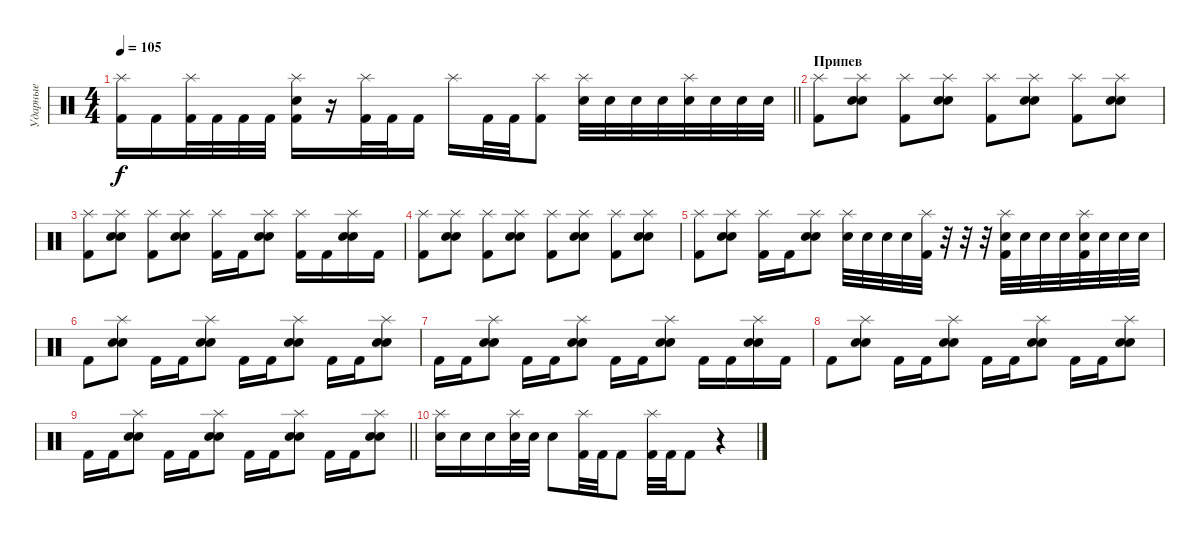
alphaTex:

\track ("Ударные" "Ударные") {instrument percussion}
\staff {score}
\articulation defaults
\ts (4 4)
\tempo 105
\clef neutral
\barLineRight lightlight
\ks c
("Splash (hit)" "Kick (hit) 2").16{dy f} "Kick (hit) 2".16 ("Splash (hit)" "Kick (hit) 2").32 "Kick (hit) 2".32 "Kick (hit) 2".32 "Kick (hit) 2".32 ("Splash (hit)" "Electric Snare (hit)" "Kick (hit) 2").16 r.16 ("Splash (hit)" "Kick (hit) 2").32 "Kick (hit) 2".32 "Kick (hit) 2".16 "Splash (hit)".16 "Kick (hit) 2".32 "Kick (hit) 2".32 ("Splash (hit)" "Kick (hit) 2").8 ("Splash (hit)" "Electric Snare (hit)").32 "Electric Snare (hit)".32 "Electric Snare (hit)".32 "Electric Snare (hit)".32 ("Splash (hit)" "Electric Snare (hit)").32 "Electric Snare (hit)".32 "Electric Snare (hit)".32 "Electric Snare (hit)".32 |
\section ("" "Припев")
("Splash (hit)" "Kick (hit) 2").8 ("Splash (hit)" "Electric Snare (hit)" "Snare (hit) 2").8 ("Splash (hit)" "Kick (hit) 2").8 ("Splash (hit)" "Electric Snare (hit)" "Snare (hit) 2").8 ("Splash (hit)" "Kick (hit) 2").8 ("Splash (hit)" "Electric Snare (hit)" "Snare (hit) 2").8 ("Splash (hit)" "Kick (hit) 2").8 ("Splash (hit)" "Electric Snare (hit)" "Snare (hit) 2").8 |
("Splash (hit)" "Kick (hit) 2").8 ("Splash (hit)" "Electric Snare (hit)" "Snare (hit) 2").8 ("Splash (hit)" "Kick (hit) 2").8 ("Splash (hit)" "Electric Snare (hit)" "Snare (hit) 2").8 ("Splash (hit)" "Kick (hit) 2").16 "Kick (hit) 2".16 ("Splash (hit)" "Electric Snare (hit)" "Snare (hit) 2").8 ("Splash (hit)" "Kick (hit) 2").16 "Kick (hit) 2".16 ("Splash (hit)" "Electric Snare (hit)" "Snare (hit) 2").16 "Kick (hit) 2".16 |
("Splash (hit)" "Kick (hit) 2").8 ("Splash (hit)" "Electric Snare (hit)" "Snare (hit) 2").8 ("Splash (hit)" "Kick (hit) 2").8 ("Splash (hit)" "Electric Snare (hit)" "Snare (hit) 2").8 ("Splash (hit)" "Kick (hit) 2").8 ("Splash (hit)" "Electric Snare (hit)" "Snare (hit) 2").8 ("Splash (hit)" "Kick (hit) 2").8 ("Splash (hit)" "Electric Snare (hit)" "Snare (hit) 2").8 |
("Splash (hit)" "Kick (hit) 2").8 ("Splash (hit)" "Electric Snare (hit)" "Snare (hit) 2").8 ("Splash (hit)" "Kick (hit) 2").16 "Kick (hit) 2".16 ("Splash (hit)" "Electric Snare (hit)" "Snare (hit) 2").8 ("Splash (hit)" "Electric Snare (hit)").32 "Electric Snare (hit)".32 "Electric Snare (hit)".32 "Electric Snare (hit)".32 ("Splash (hit)" "Kick (hit) 2").32 r.32 r.32 r.32 ("Splash (hit)" "Electric Snare (hit)" "Kick (hit) 2").32 "Electric Snare (hit)".32 "Electric Snare (hit)".32 "Electric Snare (hit)".32 ("Splash (hit)" "Electric Snare (hit)" "Kick (hit) 2").32 "Electric Snare (hit)".32 "Electric Snare (hit)".32 "Electric Snare (hit)".32 |
"Kick (hit) 2".8 ("Splash (hit)" "Electric Snare (hit)" "Snare (hit) 2").8 "Kick (hit) 2".16 "Kick (hit) 2".16 ("Splash (hit)" "Electric Snare (hit)" "Snare (hit) 2").8 "Kick (hit) 2".16 "Kick (hit) 2".16 ("Splash (hit)" "Electric Snare (hit)" "Snare (hit) 2").8 "Kick (hit) 2".16 "Kick (hit) 2".16 ("Splash (hit)" "Electric Snare (hit)" "Snare (hit) 2").8 |
"Kick (hit) 2".16 "Kick (hit) 2".16 ("Splash (hit)" "Electric Snare (hit)" "Snare (hit) 2").8 "Kick (hit) 2".16 "Kick (hit) 2".16 ("Splash (hit)" "Electric Snare (hit)" "Snare (hit) 2").8 "Kick (hit) 2".16 "Kick (hit) 2".16 ("Splash (hit)" "Electric Snare (hit)" "Snare (hit) 2").8 "Kick (hit) 2".16 "Kick (hit) 2".16 ("Splash (hit)" "Electric Snare (hit)" "Snare (hit) 2").16 "Kick (hit) 2".16 |
"Kick (hit) 2".8 ("Splash (hit)" "Electric Snare (hit)" "Snare (hit) 2").8 "Kick (hit) 2".16 "Kick (hit) 2".16 ("Splash (hit)" "Electric Snare (hit)" "Snare (hit) 2").8 "Kick (hit) 2".16 "Kick (hit) 2".16 ("Splash (hit)" "Electric Snare (hit)" "Snare (hit) 2").8 "Kick (hit) 2".16 "Kick (hit) 2".16 ("Splash (hit)" "Electric Snare (hit)" "Snare (hit) 2").8 |
\barLineRight lightlight "Kick (hit) 2".16 "Kick (hit) 2".16
("Splash (hit)" "Electric Snare (hit)" "Snare (hit) 2").8 "Kick (hit) 2".16 "Kick (hit) 2".16 ("Splash (hit)" "Electric Snare (hit)" "Snare (hit) 2").8 "Kick (hit) 2".16 "Kick (hit) 2".16 ("Splash (hit)" "Electric Snare (hit)" "Snare (hit) 2").8 "Kick (hit) 2".16 "Kick (hit) 2".16 ("Splash (hit)" "Electric Snare (hit)" "Snare (hit) 2").8 |
("Splash (hit)" "Electric Snare (hit)").16 "Electric Snare (hit)".16 "Electric Snare (hit)".16 ("Splash (hit)" "Electric Snare (hit)").32 "Electric Snare (hit)".32 "Electric Snare (hit)".8 ("Splash (hit)" "Kick (hit) 2").32 "Kick (hit) 2".32 "Kick (hit) 2".8 ("Splash (hit)" "Kick (hit) 2").32 "Kick (hit) 2".32 "Kick (hit) 2".8 r.4
